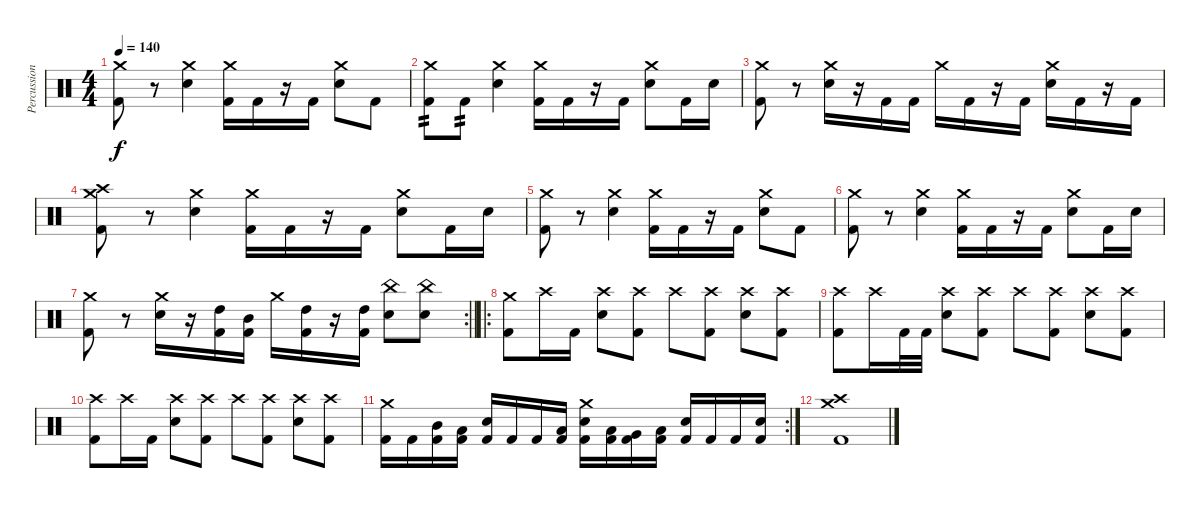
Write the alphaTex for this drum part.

\track ("Percussions" "Percussion") {instrument percussion}
\staff {score}
\articulation defaults
\ts (4 4)
\tempo 140
\clef neutral
\ks c
("Crash medium (hit)" "Kick (hit) 2").8{dy f} r.8 ("Crash medium (hit)" "Snare (hit) 2").4 ("Crash medium (hit)" "Kick (hit) 2").16 "Kick (hit) 2".16 r.16 "Kick (hit) 2".16 ("Crash medium (hit)" "Snare (hit) 2").8 "Kick (hit) 2".8 |
("Crash medium (hit)" "Kick (hit) 2").8{tp 2} "Kick (hit) 2".8{tp 2} ("Crash medium (hit)" "Snare (hit) 2").4 ("Crash medium (hit)" "Kick (hit) 2").16 "Kick (hit) 2".16 r.16 "Kick (hit) 2".16 ("Crash medium (hit)" "Snare (hit) 2").8 "Kick (hit) 2".16 "Snare (hit) 2".16 |
("Crash medium (hit)" "Kick (hit) 2").8 r.8 ("Crash medium (hit)" "Snare (hit) 2").16 r.16 "Kick (hit) 2".16 "Kick (hit) 2".16 "Crash medium (hit)".16 "Kick (hit) 2".16 r.16 "Kick (hit) 2".16 ("Crash medium (hit)" "Snare (hit) 2").16 "Kick (hit) 2".16 r.16 "Kick (hit) 2".16 |
("Crash medium (hit)" "Crash high (hit)" "Kick (hit) 2").8 r.8 ("Crash medium (hit)" "Snare (hit) 2").4 ("Crash medium (hit)" "Kick (hit) 2").16 "Kick (hit) 2".16 r.16 "Kick (hit) 2".16 ("Crash medium (hit)" "Snare (hit) 2").8 "Kick (hit) 2".16 "Snare (hit) 2".16 |
("Crash medium (hit)" "Kick (hit) 2").8 r.8 ("Crash medium (hit)" "Snare (hit) 2").4 ("Crash medium (hit)" "Kick (hit) 2").16 "Kick (hit) 2".16 r.16 "Kick (hit) 2".16 ("Crash medium (hit)" "Snare (hit) 2").8 "Kick (hit) 2".8 |
("Crash medium (hit)" "Kick (hit) 2").8 r.8 ("Crash medium (hit)" "Snare (hit) 2").4 ("Crash medium (hit)" "Kick (hit) 2").16 "Kick (hit) 2".16 r.16 "Kick (hit) 2".16 ("Crash medium (hit)" "Snare (hit) 2").8 "Kick (hit) 2".16 "Snare (hit) 2".16 |
\rc 2
\barLineRight lightlight
("Crash medium (hit)" "Kick (hit) 2").8 r.8 ("Crash medium (hit)" "Snare (hit) 2").16 r.16 ("High Tom (hit)" "Kick (hit) 2").16 ("Mid Tom (hit)" "Kick (hit) 2").16 "Crash medium (hit)".16 ("High Tom (hit)" "Kick (hit) 2").16 r.16 ("High Tom (hit)" "Kick (hit) 2").16 ("China (hit)" "Snare (hit) 2").8 ("China (hit)" "Snare (hit) 2").8 |
\ro
("Crash medium (hit)" "Kick (hit) 2").8 "Crash high (hit)".16 "Kick (hit) 2".16 ("Crash high (hit)" "Snare (hit) 2").8 ("Crash high (hit)" "Kick (hit) 2").8 "Crash high (hit)".8 ("Crash high (hit)" "Kick (hit) 2").8 ("Crash high (hit)" "Snare (hit) 2").8 ("Crash high (hit)" "Kick (hit) 2").8 |
("Crash high (hit)" "Kick (hit) 2").8 "Crash high (hit)".16 "Kick (hit) 2".32 "Kick (hit) 2".32 ("Crash high (hit)" "Snare (hit) 2").8 ("Crash high (hit)" "Kick (hit) 2").8 "Crash high (hit)".8 ("Crash high (hit)" "Kick (hit) 2").8 ("Crash high (hit)" "Snare (hit) 2").8 ("Crash high (hit)" "Kick (hit) 2").8 |
("Crash high (hit)" "Kick (hit) 2").8 "Crash high (hit)".16 "Kick (hit) 2".16 ("Crash high (hit)" "Snare (hit) 2").8 ("Crash high (hit)" "Kick (hit) 2").8 "Crash high (hit)".8 ("Crash high (hit)" "Kick (hit) 2").8 ("Crash high (hit)" "Snare (hit) 2").8 ("Crash high (hit)" "Kick (hit) 2").8 |
\rc 2
("Crash medium (hit)" "Kick (hit) 2").16 "Kick (hit) 2".16 ("Mid Tom (hit)" "Kick (hit) 2").16 ("Low Tom (hit)" "Kick (hit) 2").16 ("Snare (hit) 2" "Kick (hit) 2").16 "Kick (hit) 2".16 "Kick (hit) 2".16 ("Low Tom (hit)" "Kick (hit) 2").16 ("Crash medium (hit)" "Snare (hit) 2" "Kick (hit) 2").16 ("Low Tom (hit)" "Kick (hit) 2").16 ("Very Low Tom (hit)" "Kick (hit) 2").16 ("Low Floor Tom (hit)" "Kick (hit) 2").16 ("Snare (hit) 2" "Kick (hit) 2").16 "Kick (hit) 2".16 "Kick (hit) 2".16 ("Snare (hit) 2" "Kick (hit) 2").16 |
("Crash high (hit)" "Crash medium (hit)" "Kick (hit) 2").1
